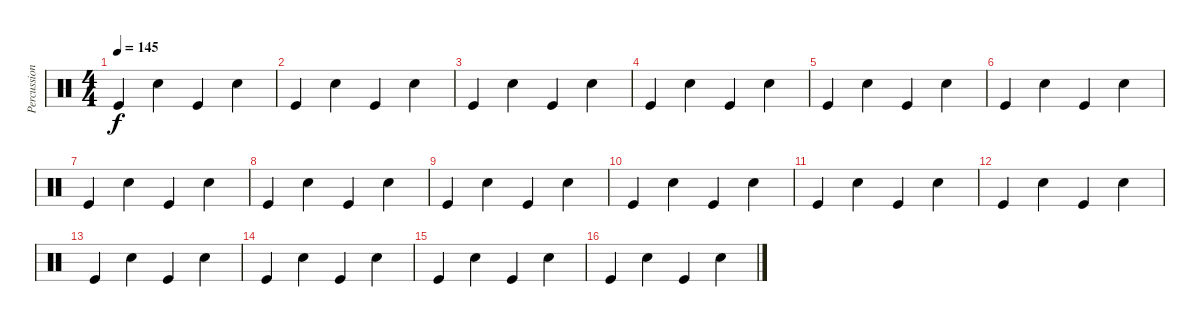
\track ("Percussion" "Percussion") {instrument percussion}
\staff {score}
\articulation defaults
\ts (4 4)
\tempo 145
\clef neutral
\ks c "Kick (hit)".4{dy f} "Snare (hit) 2".4 "Kick (hit)".4 "Snare (hit) 2".4
|
"Kick (hit)".4 "Snare (hit) 2".4 "Kick (hit)".4 "Snare (hit) 2".4 |
"Kick (hit)".4 "Snare (hit) 2".4 "Kick (hit)".4 "Snare (hit) 2".4 |
"Kick (hit)".4 "Snare (hit) 2".4 "Kick (hit)".4 "Snare (hit) 2".4 |
"Kick (hit)".4 "Snare (hit) 2".4 "Kick (hit)".4 "Snare (hit) 2".4 |
"Kick (hit)".4 "Snare (hit) 2".4 "Kick (hit)".4 "Snare (hit) 2".4 |
"Kick (hit)".4 "Snare (hit) 2".4 "Kick (hit)".4 "Snare (hit) 2".4 |
"Kick (hit)".4 "Snare (hit) 2".4 "Kick (hit)".4 "Snare (hit) 2".4 |
"Kick (hit)".4 "Snare (hit) 2".4 "Kick (hit)".4 "Snare (hit) 2".4 |
"Kick (hit)".4 "Snare (hit) 2".4 "Kick (hit)".4 "Snare (hit) 2".4 |
"Kick (hit)".4 "Snare (hit) 2".4 "Kick (hit)".4 "Snare (hit) 2".4 |
"Kick (hit)".4 "Snare (hit) 2".4 "Kick (hit)".4 "Snare (hit) 2".4 |
"Kick (hit)".4 "Snare (hit) 2".4 "Kick (hit)".4 "Snare (hit) 2".4 |
"Kick (hit)".4 "Snare (hit) 2".4 "Kick (hit)".4 "Snare (hit) 2".4 |
"Kick (hit)".4 "Snare (hit) 2".4 "Kick (hit)".4 "Snare (hit) 2".4 |
"Kick (hit)".4 "Snare (hit) 2".4 "Kick (hit)".4 "Snare (hit) 2".4
